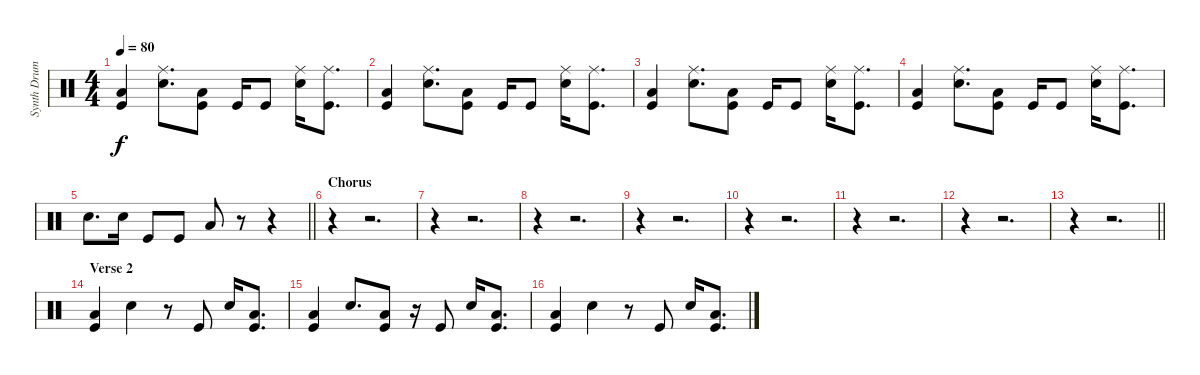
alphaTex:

\track ("Synth Drums" "Synth Drum") {instrument percussion}
\staff {score}
\articulation defaults
\ts (4 4)
\tempo 80
\clef neutral
\ks c
("Kick (hit)" "Low Floor Tom (hit)").4{dy f} ("Snare (hit) 2" "Ride (middle)").8{d} ("Kick (hit)" "Low Floor Tom (hit)").8 "Kick (hit)".16 "Kick (hit)".8 ("Snare (hit) 2" "Ride (middle)").16 ("Kick (hit)" "Ride (middle)").8{d} |
("Kick (hit)" "Low Floor Tom (hit)").4 ("Snare (hit) 2" "Ride (middle)").8{d} ("Kick (hit)" "Low Floor Tom (hit)").8 "Kick (hit)".16 "Kick (hit)".8 ("Snare (hit) 2" "Ride (middle)").16 ("Kick (hit)" "Ride (middle)").8{d} |
("Kick (hit)" "Low Floor Tom (hit)").4 ("Snare (hit) 2" "Ride (middle)").8{d} ("Kick (hit)" "Low Floor Tom (hit)").8 "Kick (hit)".16 "Kick (hit)".8 ("Snare (hit) 2" "Ride (middle)").16 ("Kick (hit)" "Ride (middle)").8{d} |
("Kick (hit)" "Low Floor Tom (hit)").4 ("Snare (hit) 2" "Ride (middle)").8{d} ("Kick (hit)" "Low Floor Tom (hit)").8 "Kick (hit)".16 "Kick (hit)".8 ("Snare (hit) 2" "Ride (middle)").16 ("Kick (hit)" "Ride (middle)").8{d} |
\barLineRight lightlight "Snare (hit) 2".8{d} "Snare (hit) 2".16 "Kick (hit)".8 "Kick (hit)".8 "Low Floor Tom (hit)".8
r.8 r.4 |
\section ("" "Chorus")
r.4 r.2{d} |
r.4 r.2{d} |
r.4 r.2{d} |
r.4 r.2{d} |
r.4 r.2{d} |
r.4 r.2{d} |
r.4 r.2{d} |
\barLineRight lightlight
r.4 r.2{d} |
\section ("" "Verse 2")
("Kick (hit)" "Low Floor Tom (hit)").4 "Snare (hit) 2".4 r.8 "Kick (hit)".8 "Snare (hit) 2".16 ("Kick (hit)" "Low Floor Tom (hit)").8{d} |
("Kick (hit)" "Low Floor Tom (hit)").4 "Snare (hit) 2".8{d} ("Kick (hit)" "Low Floor Tom (hit)").8 r.16 "Kick (hit)".8 "Snare (hit) 2".16 ("Kick (hit)" "Low Floor Tom (hit)").8{d} |
("Kick (hit)" "Low Floor Tom (hit)").4 "Snare (hit) 2".4 r.8 "Kick (hit)".8 "Snare (hit) 2".16 ("Kick (hit)" "Low Floor Tom (hit)").8{d}
